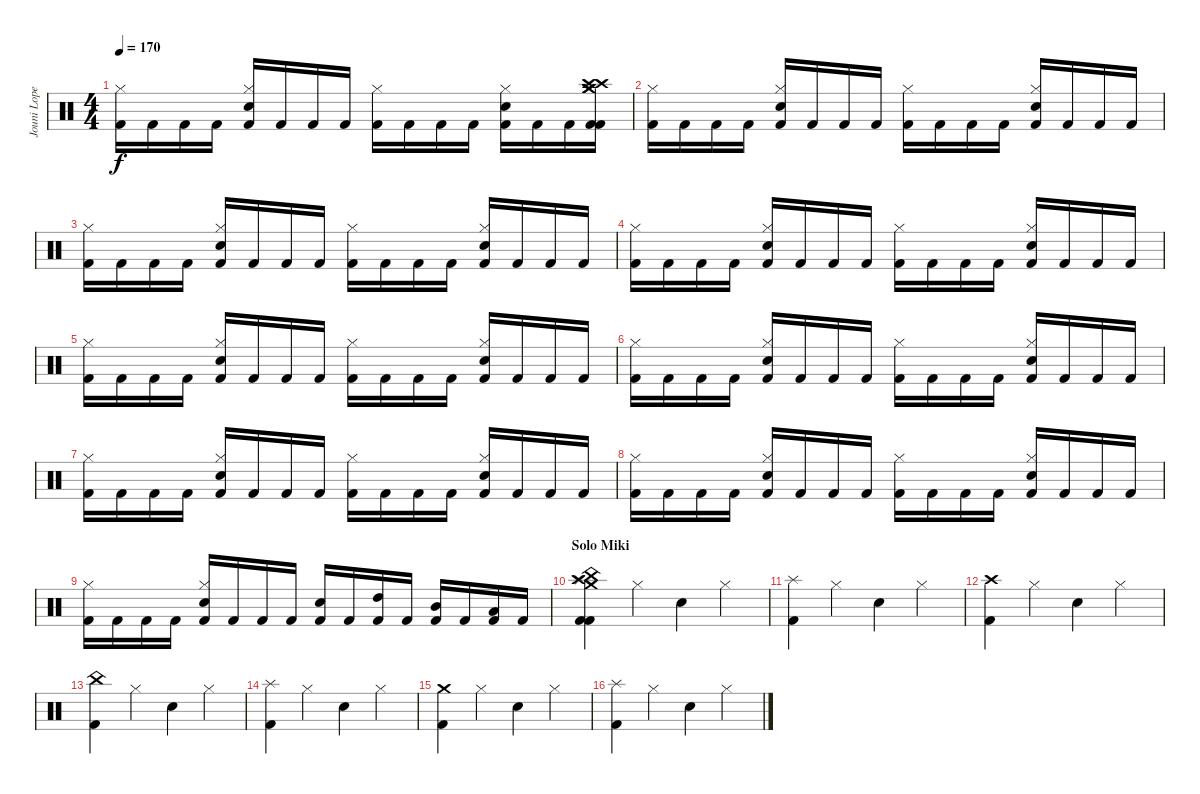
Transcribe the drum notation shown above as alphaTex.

\track ("Jouni Lopez (Bateria) 17 años" "Jouni Lope") {instrument percussion}
\staff {score}
\articulation defaults
\ts (4 4)
\tempo 170
\clef neutral
\ks c
("Kick (hit) 2" "Hi-Hat (closed)").16{dy f} "Kick (hit) 2".16 "Kick (hit) 2".16 "Kick (hit) 2".16 ("Kick (hit) 2" "Snare (hit) 2" "Hi-Hat (closed)").16 "Kick (hit) 2".16 "Kick (hit) 2".16 "Kick (hit) 2".16 ("Kick (hit) 2" "Hi-Hat (closed)").16 "Kick (hit) 2".16 "Kick (hit) 2".16 "Kick (hit) 2".16 ("Kick (hit) 2" "Snare (hit) 2" "Hi-Hat (closed)").16 "Kick (hit) 2".16 "Kick (hit) 2".16 ("Kick (hit) 2" "Kick (hit) 2" "Crash medium (hit)" "Crash medium (hit)" "Crash high (hit)" "Crash high (hit)").16 |
("Kick (hit) 2" "Hi-Hat (closed)").16 "Kick (hit) 2".16 "Kick (hit) 2".16 "Kick (hit) 2".16 ("Kick (hit) 2" "Snare (hit) 2" "Hi-Hat (closed)").16 "Kick (hit) 2".16 "Kick (hit) 2".16 "Kick (hit) 2".16 ("Kick (hit) 2" "Hi-Hat (closed)").16 "Kick (hit) 2".16 "Kick (hit) 2".16 "Kick (hit) 2".16 ("Kick (hit) 2" "Snare (hit) 2" "Hi-Hat (closed)").16 "Kick (hit) 2".16 "Kick (hit) 2".16 "Kick (hit) 2".16 |
("Kick (hit) 2" "Hi-Hat (closed)").16 "Kick (hit) 2".16 "Kick (hit) 2".16 "Kick (hit) 2".16 ("Kick (hit) 2" "Snare (hit) 2" "Hi-Hat (closed)").16 "Kick (hit) 2".16 "Kick (hit) 2".16 "Kick (hit) 2".16 ("Kick (hit) 2" "Hi-Hat (closed)").16 "Kick (hit) 2".16 "Kick (hit) 2".16 "Kick (hit) 2".16 ("Kick (hit) 2" "Snare (hit) 2" "Hi-Hat (closed)").16 "Kick (hit) 2".16 "Kick (hit) 2".16 "Kick (hit) 2".16 |
("Kick (hit) 2" "Hi-Hat (closed)").16 "Kick (hit) 2".16 "Kick (hit) 2".16 "Kick (hit) 2".16 ("Kick (hit) 2" "Snare (hit) 2" "Hi-Hat (closed)").16 "Kick (hit) 2".16 "Kick (hit) 2".16 "Kick (hit) 2".16 ("Kick (hit) 2" "Hi-Hat (closed)").16 "Kick (hit) 2".16 "Kick (hit) 2".16 "Kick (hit) 2".16 ("Kick (hit) 2" "Snare (hit) 2" "Hi-Hat (closed)").16 "Kick (hit) 2".16 "Kick (hit) 2".16 "Kick (hit) 2".16 |
("Kick (hit) 2" "Hi-Hat (closed)").16 "Kick (hit) 2".16 "Kick (hit) 2".16 "Kick (hit) 2".16 ("Kick (hit) 2" "Snare (hit) 2" "Hi-Hat (closed)").16 "Kick (hit) 2".16 "Kick (hit) 2".16 "Kick (hit) 2".16 ("Kick (hit) 2" "Hi-Hat (closed)").16 "Kick (hit) 2".16 "Kick (hit) 2".16 "Kick (hit) 2".16 ("Kick (hit) 2" "Snare (hit) 2" "Hi-Hat (closed)").16 "Kick (hit) 2".16 "Kick (hit) 2".16 "Kick (hit) 2".16 |
("Kick (hit) 2" "Hi-Hat (closed)").16 "Kick (hit) 2".16 "Kick (hit) 2".16 "Kick (hit) 2".16 ("Kick (hit) 2" "Snare (hit) 2" "Hi-Hat (closed)").16 "Kick (hit) 2".16 "Kick (hit) 2".16 "Kick (hit) 2".16 ("Kick (hit) 2" "Hi-Hat (closed)").16 "Kick (hit) 2".16 "Kick (hit) 2".16 "Kick (hit) 2".16 ("Kick (hit) 2" "Snare (hit) 2" "Hi-Hat (closed)").16 "Kick (hit) 2".16 "Kick (hit) 2".16 "Kick (hit) 2".16 |
("Kick (hit) 2" "Hi-Hat (closed)").16 "Kick (hit) 2".16 "Kick (hit) 2".16 "Kick (hit) 2".16 ("Kick (hit) 2" "Snare (hit) 2" "Hi-Hat (closed)").16 "Kick (hit) 2".16 "Kick (hit) 2".16 "Kick (hit) 2".16 ("Kick (hit) 2" "Hi-Hat (closed)").16 "Kick (hit) 2".16 "Kick (hit) 2".16 "Kick (hit) 2".16 ("Kick (hit) 2" "Snare (hit) 2" "Hi-Hat (closed)").16 "Kick (hit) 2".16 "Kick (hit) 2".16 "Kick (hit) 2".16 |
("Kick (hit) 2" "Hi-Hat (closed)").16 "Kick (hit) 2".16 "Kick (hit) 2".16 "Kick (hit) 2".16 ("Kick (hit) 2" "Snare (hit) 2" "Hi-Hat (closed)").16 "Kick (hit) 2".16 "Kick (hit) 2".16 "Kick (hit) 2".16 ("Kick (hit) 2" "Hi-Hat (closed)").16 "Kick (hit) 2".16 "Kick (hit) 2".16 "Kick (hit) 2".16 ("Kick (hit) 2" "Snare (hit) 2" "Hi-Hat (closed)").16 "Kick (hit) 2".16 "Kick (hit) 2".16 "Kick (hit) 2".16 |
("Kick (hit) 2" "Hi-Hat (closed)").16 "Kick (hit) 2".16 "Kick (hit) 2".16 "Kick (hit) 2".16 ("Kick (hit) 2" "Snare (hit) 2" "Hi-Hat (closed)").16 "Kick (hit) 2".16 "Kick (hit) 2".16 "Kick (hit) 2".16 ("Kick (hit) 2" "Snare (hit) 2").16 "Kick (hit) 2".16 ("Kick (hit) 2" "High Tom (hit)").16 "Kick (hit) 2".16 ("Kick (hit) 2" "Mid Tom (hit)").16 "Kick (hit) 2".16 ("Kick (hit) 2" "Low Tom (hit)").16 "Kick (hit) 2".16 |
\section ("" "Solo Miki")
("Kick (hit) 2" "Crash medium (hit)" "Splash (hit)" "China (hit)" "Crash high (hit)" "Kick (hit) 2").4 "Hi-Hat (closed)".4 "Snare (hit) 2".4 "Hi-Hat (closed)".4 |
("Kick (hit) 2" "Splash (hit)").4 "Hi-Hat (closed)".4 "Snare (hit) 2".4 "Hi-Hat (closed)".4 |
("Kick (hit) 2" "Crash high (hit)").4 "Hi-Hat (closed)".4 "Snare (hit) 2".4 "Hi-Hat (closed)".4 |
("Kick (hit) 2" "China (hit)").4 "Hi-Hat (closed)".4 "Snare (hit) 2".4 "Hi-Hat (closed)".4 |
("Kick (hit) 2" "Splash (hit)").4 "Hi-Hat (closed)".4 "Snare (hit) 2".4 "Hi-Hat (closed)".4 |
("Kick (hit) 2" "Crash medium (hit)").4 "Hi-Hat (closed)".4 "Snare (hit) 2".4 "Hi-Hat (closed)".4 |
("Kick (hit) 2" "Splash (hit)").4 "Hi-Hat (closed)".4 "Snare (hit) 2".4 "Hi-Hat (closed)".4
